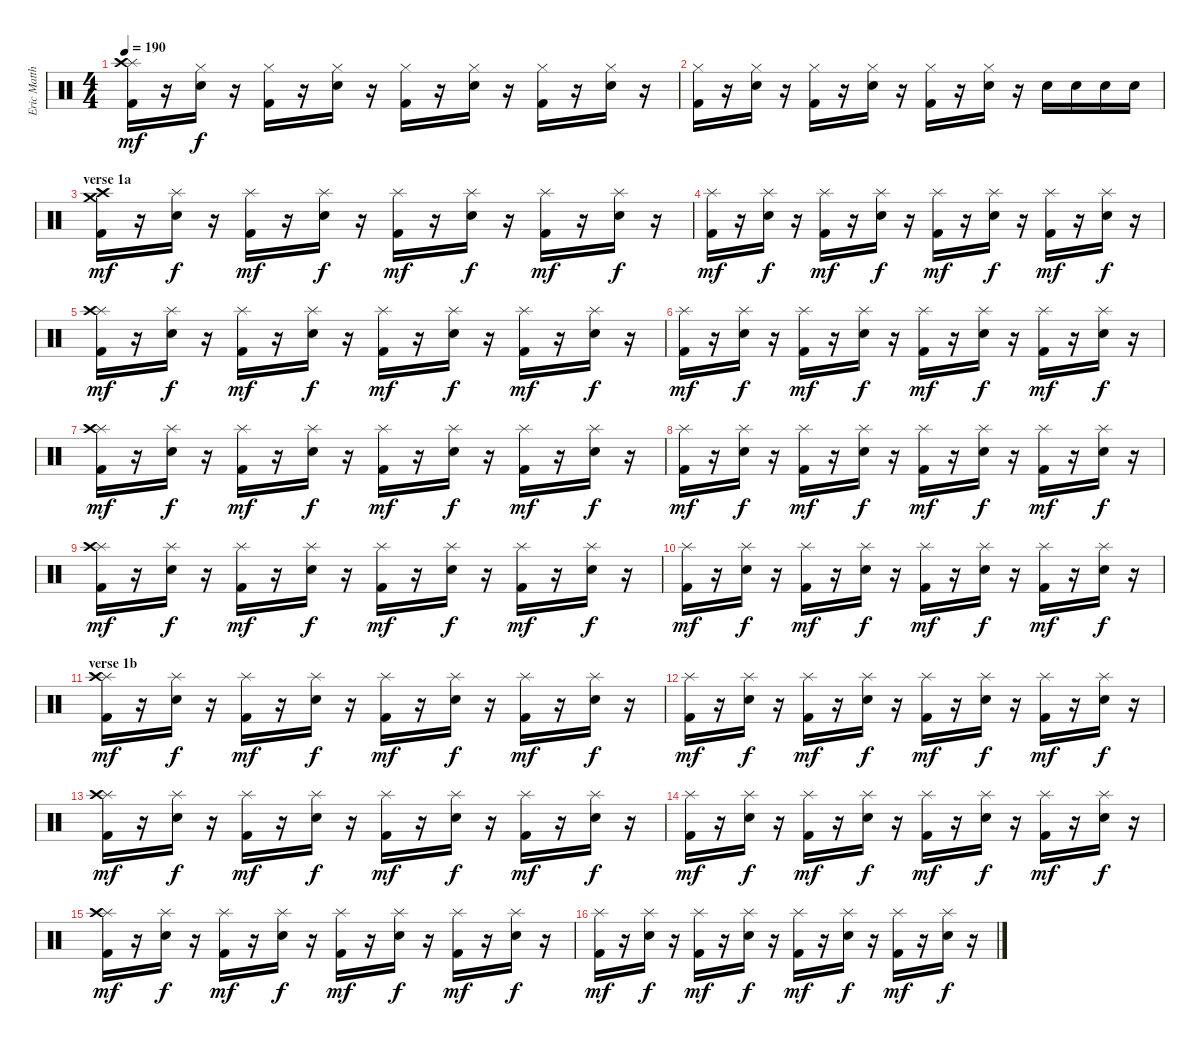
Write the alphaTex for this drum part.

\track ("Eric Matthews (drums)" "Eric Matth") {instrument percussion}
\staff {score}
\articulation defaults
\ts (4 4)
\tempo 190
\clef neutral
\ks c
("Splash (hit)" "Crash high (hit)" "Kick (hit) 2").16{dy mf} r.16 ("Hi-Hat (closed)" "Snare (hit) 2").16{dy f} r.16 ("Hi-Hat (closed)" "Kick (hit) 2").16 r.16 ("Hi-Hat (closed)" "Snare (hit) 2").16 r.16 ("Hi-Hat (closed)" "Kick (hit) 2").16 r.16 ("Hi-Hat (closed)" "Snare (hit) 2").16 r.16 ("Hi-Hat (closed)" "Kick (hit) 2").16 r.16 ("Hi-Hat (closed)" "Snare (hit) 2").16 r.16 |
("Hi-Hat (closed)" "Kick (hit) 2").16 r.16 ("Hi-Hat (closed)" "Snare (hit) 2").16 r.16 ("Hi-Hat (closed)" "Kick (hit) 2").16 r.16 ("Hi-Hat (closed)" "Snare (hit) 2").16 r.16 ("Hi-Hat (closed)" "Kick (hit) 2").16 r.16 ("Hi-Hat (closed)" "Snare (hit) 2").16 r.16 "Snare (hit) 2".16 "Snare (hit) 2".16 "Snare (hit) 2".16 "Snare (hit) 2".16 |
\section ("" "verse 1a")
("Crash medium (hit)" "Crash high (hit)" "Kick (hit) 2").16{dy mf} r.16 ("Splash (hit)" "Snare (hit) 2").16{dy f} r.16 ("Splash (hit)" "Kick (hit) 2").16{dy mf} r.16 ("Splash (hit)" "Snare (hit) 2").16{dy f} r.16 ("Splash (hit)" "Kick (hit) 2").16{dy mf} r.16 ("Splash (hit)" "Snare (hit) 2").16{dy f} r.16 ("Splash (hit)" "Kick (hit) 2").16{dy mf} r.16 ("Splash (hit)" "Snare (hit) 2").16{dy f} r.16 |
("Splash (hit)" "Kick (hit) 2").16{dy mf} r.16 ("Splash (hit)" "Snare (hit) 2").16{dy f} r.16 ("Splash (hit)" "Kick (hit) 2").16{dy mf} r.16 ("Splash (hit)" "Snare (hit) 2").16{dy f} r.16 ("Splash (hit)" "Kick (hit) 2").16{dy mf} r.16 ("Splash (hit)" "Snare (hit) 2").16{dy f} r.16 ("Splash (hit)" "Kick (hit) 2").16{dy mf} r.16 ("Splash (hit)" "Snare (hit) 2").16{dy f} r.16 |
("Splash (hit)" "Crash high (hit)" "Kick (hit) 2").16{dy mf} r.16 ("Splash (hit)" "Snare (hit) 2").16{dy f} r.16 ("Splash (hit)" "Kick (hit) 2").16{dy mf} r.16 ("Splash (hit)" "Snare (hit) 2").16{dy f} r.16 ("Splash (hit)" "Kick (hit) 2").16{dy mf} r.16 ("Splash (hit)" "Snare (hit) 2").16{dy f} r.16 ("Splash (hit)" "Kick (hit) 2").16{dy mf} r.16 ("Splash (hit)" "Snare (hit) 2").16{dy f} r.16 |
("Splash (hit)" "Kick (hit) 2").16{dy mf} r.16 ("Splash (hit)" "Snare (hit) 2").16{dy f} r.16 ("Splash (hit)" "Kick (hit) 2").16{dy mf} r.16 ("Splash (hit)" "Snare (hit) 2").16{dy f} r.16 ("Splash (hit)" "Kick (hit) 2").16{dy mf} r.16 ("Splash (hit)" "Snare (hit) 2").16{dy f} r.16 ("Splash (hit)" "Kick (hit) 2").16{dy mf} r.16 ("Splash (hit)" "Snare (hit) 2").16{dy f} r.16 |
("Splash (hit)" "Crash high (hit)" "Kick (hit) 2").16{dy mf} r.16 ("Splash (hit)" "Snare (hit) 2").16{dy f} r.16 ("Splash (hit)" "Kick (hit) 2").16{dy mf} r.16 ("Splash (hit)" "Snare (hit) 2").16{dy f} r.16 ("Splash (hit)" "Kick (hit) 2").16{dy mf} r.16 ("Splash (hit)" "Snare (hit) 2").16{dy f} r.16 ("Splash (hit)" "Kick (hit) 2").16{dy mf} r.16 ("Splash (hit)" "Snare (hit) 2").16{dy f} r.16 |
("Splash (hit)" "Kick (hit) 2").16{dy mf} r.16 ("Splash (hit)" "Snare (hit) 2").16{dy f} r.16 ("Splash (hit)" "Kick (hit) 2").16{dy mf} r.16 ("Splash (hit)" "Snare (hit) 2").16{dy f} r.16 ("Splash (hit)" "Kick (hit) 2").16{dy mf} r.16 ("Splash (hit)" "Snare (hit) 2").16{dy f} r.16 ("Splash (hit)" "Kick (hit) 2").16{dy mf} r.16 ("Splash (hit)" "Snare (hit) 2").16{dy f} r.16 |
("Splash (hit)" "Crash high (hit)" "Kick (hit) 2").16{dy mf} r.16 ("Splash (hit)" "Snare (hit) 2").16{dy f} r.16 ("Splash (hit)" "Kick (hit) 2").16{dy mf} r.16 ("Splash (hit)" "Snare (hit) 2").16{dy f} r.16 ("Splash (hit)" "Kick (hit) 2").16{dy mf} r.16 ("Splash (hit)" "Snare (hit) 2").16{dy f} r.16 ("Splash (hit)" "Kick (hit) 2").16{dy mf} r.16 ("Splash (hit)" "Snare (hit) 2").16{dy f} r.16 |
("Splash (hit)" "Kick (hit) 2").16{dy mf} r.16 ("Splash (hit)" "Snare (hit) 2").16{dy f} r.16 ("Splash (hit)" "Kick (hit) 2").16{dy mf} r.16 ("Splash (hit)" "Snare (hit) 2").16{dy f} r.16 ("Splash (hit)" "Kick (hit) 2").16{dy mf} r.16 ("Splash (hit)" "Snare (hit) 2").16{dy f} r.16 ("Splash (hit)" "Kick (hit) 2").16{dy mf} r.16 ("Splash (hit)" "Snare (hit) 2").16{dy f} r.16 |
\section ("" "verse 1b")
("Splash (hit)" "Crash high (hit)" "Kick (hit) 2").16{dy mf} r.16 ("Splash (hit)" "Snare (hit) 2").16{dy f} r.16 ("Splash (hit)" "Kick (hit) 2").16{dy mf} r.16 ("Splash (hit)" "Snare (hit) 2").16{dy f} r.16 ("Splash (hit)" "Kick (hit) 2").16{dy mf} r.16 ("Splash (hit)" "Snare (hit) 2").16{dy f} r.16 ("Splash (hit)" "Kick (hit) 2").16{dy mf} r.16 ("Splash (hit)" "Snare (hit) 2").16{dy f} r.16 |
("Splash (hit)" "Kick (hit) 2").16{dy mf} r.16 ("Splash (hit)" "Snare (hit) 2").16{dy f} r.16 ("Splash (hit)" "Kick (hit) 2").16{dy mf} r.16 ("Splash (hit)" "Snare (hit) 2").16{dy f} r.16 ("Splash (hit)" "Kick (hit) 2").16{dy mf} r.16 ("Splash (hit)" "Snare (hit) 2").16{dy f} r.16 ("Splash (hit)" "Kick (hit) 2").16{dy mf} r.16 ("Splash (hit)" "Snare (hit) 2").16{dy f} r.16 |
("Splash (hit)" "Crash high (hit)" "Kick (hit) 2").16{dy mf} r.16 ("Splash (hit)" "Snare (hit) 2").16{dy f} r.16 ("Splash (hit)" "Kick (hit) 2").16{dy mf} r.16 ("Splash (hit)" "Snare (hit) 2").16{dy f} r.16 ("Splash (hit)" "Kick (hit) 2").16{dy mf} r.16 ("Splash (hit)" "Snare (hit) 2").16{dy f} r.16 ("Splash (hit)" "Kick (hit) 2").16{dy mf} r.16 ("Splash (hit)" "Snare (hit) 2").16{dy f} r.16 |
("Splash (hit)" "Kick (hit) 2").16{dy mf} r.16 ("Splash (hit)" "Snare (hit) 2").16{dy f} r.16 ("Splash (hit)" "Kick (hit) 2").16{dy mf} r.16 ("Splash (hit)" "Snare (hit) 2").16{dy f} r.16 ("Splash (hit)" "Kick (hit) 2").16{dy mf} r.16 ("Splash (hit)" "Snare (hit) 2").16{dy f} r.16 ("Splash (hit)" "Kick (hit) 2").16{dy mf} r.16 ("Splash (hit)" "Snare (hit) 2").16{dy f} r.16 |
("Splash (hit)" "Crash high (hit)" "Kick (hit) 2").16{dy mf} r.16 ("Splash (hit)" "Snare (hit) 2").16{dy f} r.16 ("Splash (hit)" "Kick (hit) 2").16{dy mf} r.16 ("Splash (hit)" "Snare (hit) 2").16{dy f} r.16 ("Splash (hit)" "Kick (hit) 2").16{dy mf} r.16 ("Splash (hit)" "Snare (hit) 2").16{dy f} r.16 ("Splash (hit)" "Kick (hit) 2").16{dy mf} r.16 ("Splash (hit)" "Snare (hit) 2").16{dy f} r.16 |
("Splash (hit)" "Kick (hit) 2").16{dy mf} r.16 ("Splash (hit)" "Snare (hit) 2").16{dy f} r.16 ("Splash (hit)" "Kick (hit) 2").16{dy mf} r.16 ("Splash (hit)" "Snare (hit) 2").16{dy f} r.16 ("Splash (hit)" "Kick (hit) 2").16{dy mf} r.16 ("Splash (hit)" "Snare (hit) 2").16{dy f} r.16 ("Splash (hit)" "Kick (hit) 2").16{dy mf} r.16 ("Splash (hit)" "Snare (hit) 2").16{dy f} r.16
